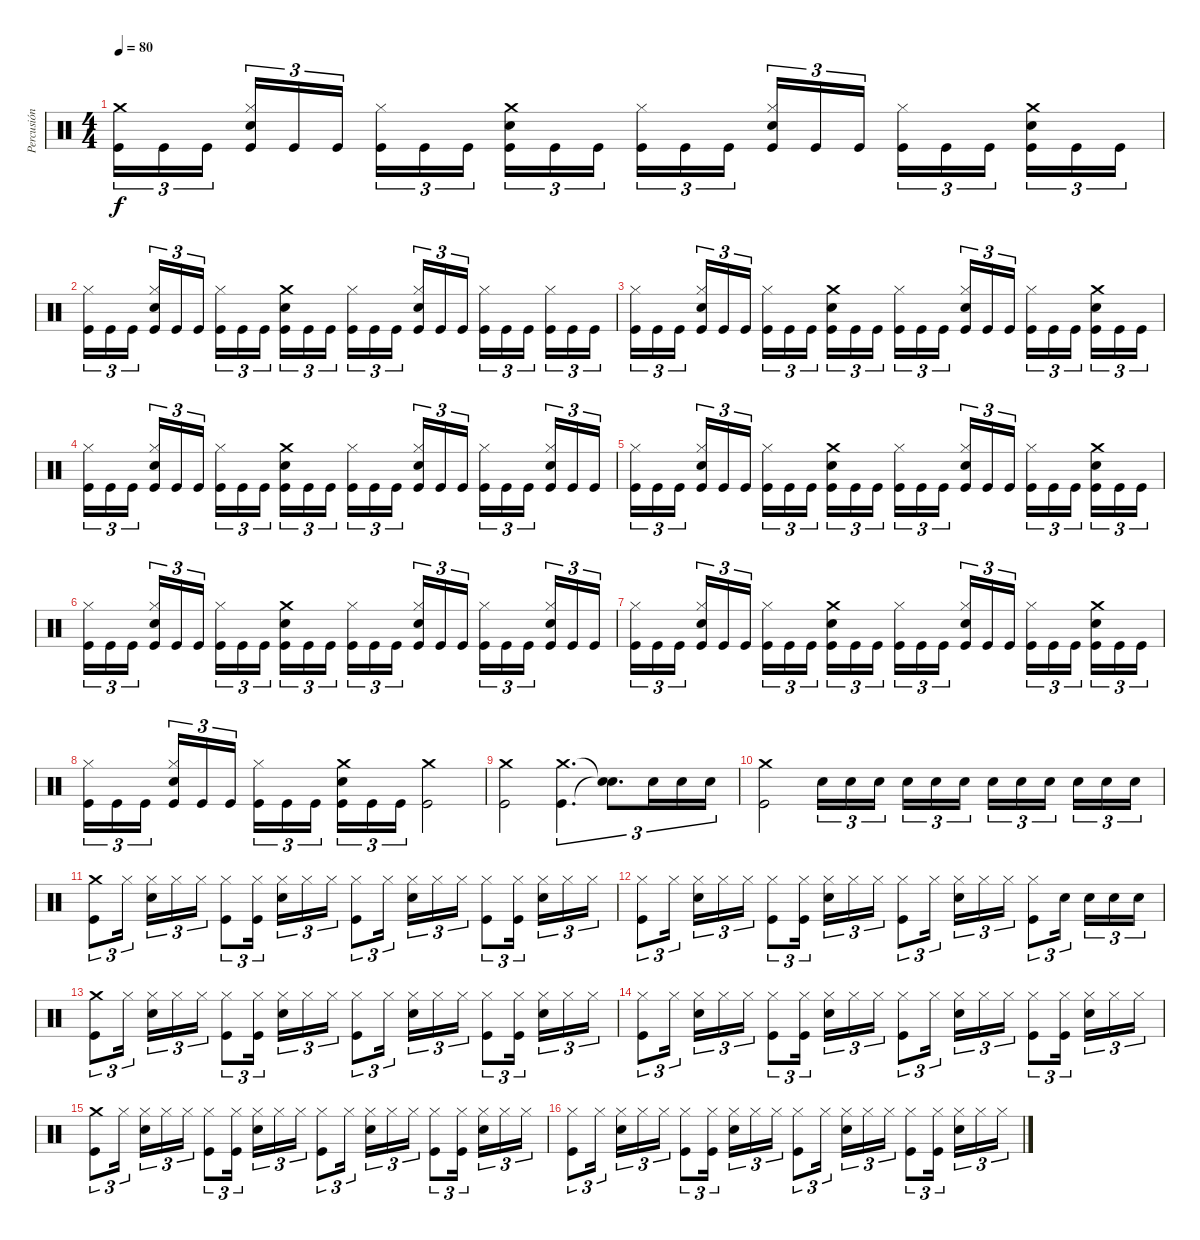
\track ("Percusión con doble bombo" "Percusión ") {mute instrument percussion}
\staff {score}
\articulation defaults
\ts (4 4)
\tempo 80
\clef neutral
\ks c
("Crash medium (hit)" "Kick (hit)").16{tu (3 2) dy f} "Kick (hit)".16{tu (3 2)} "Kick (hit)".16{tu (3 2) beam splitsecondary} ("Hi-Hat (closed)" "Snare (hit) 2" "Kick (hit)").16{tu (3 2)} "Kick (hit)".16{tu (3 2)} "Kick (hit)".16{tu (3 2)} ("Hi-Hat (closed)" "Kick (hit)").16{tu (3 2)} "Kick (hit)".16{tu (3 2)} "Kick (hit)".16{tu (3 2) beam splitsecondary} ("Crash medium (hit)" "Snare (hit) 2" "Kick (hit)").16{tu (3 2)} "Kick (hit)".16{tu (3 2)} "Kick (hit)".16{tu (3 2)} ("Hi-Hat (closed)" "Kick (hit)").16{tu (3 2)} "Kick (hit)".16{tu (3 2)} "Kick (hit)".16{tu (3 2) beam splitsecondary} ("Hi-Hat (closed)" "Snare (hit) 2" "Kick (hit)").16{tu (3 2)} "Kick (hit)".16{tu (3 2)} "Kick (hit)".16{tu (3 2)} ("Hi-Hat (closed)" "Kick (hit)").16{tu (3 2)} "Kick (hit)".16{tu (3 2)} "Kick (hit)".16{tu (3 2) beam splitsecondary} ("Crash medium (hit)" "Snare (hit) 2" "Kick (hit)").16{tu (3 2)} "Kick (hit)".16{tu (3 2)} "Kick (hit)".16{tu (3 2)} |
("Hi-Hat (closed)" "Kick (hit)").16{tu (3 2)} "Kick (hit)".16{tu (3 2)} "Kick (hit)".16{tu (3 2) beam splitsecondary} ("Hi-Hat (closed)" "Snare (hit) 2" "Kick (hit)").16{tu (3 2)} "Kick (hit)".16{tu (3 2)} "Kick (hit)".16{tu (3 2)} ("Hi-Hat (closed)" "Kick (hit)").16{tu (3 2)} "Kick (hit)".16{tu (3 2)} "Kick (hit)".16{tu (3 2) beam splitsecondary} ("Crash medium (hit)" "Snare (hit) 2" "Kick (hit)").16{tu (3 2)} "Kick (hit)".16{tu (3 2)} "Kick (hit)".16{tu (3 2)} ("Hi-Hat (closed)" "Kick (hit)").16{tu (3 2)} "Kick (hit)".16{tu (3 2)} "Kick (hit)".16{tu (3 2) beam splitsecondary} ("Hi-Hat (closed)" "Snare (hit) 2" "Kick (hit)").16{tu (3 2)} "Kick (hit)".16{tu (3 2)} "Kick (hit)".16{tu (3 2)} ("Hi-Hat (closed)" "Kick (hit)").16{tu (3 2)} "Kick (hit)".16{tu (3 2)} "Kick (hit)".16{tu (3 2) beam splitsecondary} ("Hi-Hat (closed)" "Kick (hit)").16{tu (3 2)} "Kick (hit)".16{tu (3 2)} "Kick (hit)".16{tu (3 2)} |
("Hi-Hat (closed)" "Kick (hit)").16{tu (3 2)} "Kick (hit)".16{tu (3 2)} "Kick (hit)".16{tu (3 2) beam splitsecondary} ("Hi-Hat (closed)" "Snare (hit) 2" "Kick (hit)").16{tu (3 2)} "Kick (hit)".16{tu (3 2)} "Kick (hit)".16{tu (3 2)} ("Hi-Hat (closed)" "Kick (hit)").16{tu (3 2)} "Kick (hit)".16{tu (3 2)} "Kick (hit)".16{tu (3 2) beam splitsecondary} ("Crash medium (hit)" "Snare (hit) 2" "Kick (hit)").16{tu (3 2)} "Kick (hit)".16{tu (3 2)} "Kick (hit)".16{tu (3 2)} ("Hi-Hat (closed)" "Kick (hit)").16{tu (3 2)} "Kick (hit)".16{tu (3 2)} "Kick (hit)".16{tu (3 2) beam splitsecondary} ("Hi-Hat (closed)" "Snare (hit) 2" "Kick (hit)").16{tu (3 2)} "Kick (hit)".16{tu (3 2)} "Kick (hit)".16{tu (3 2)} ("Hi-Hat (closed)" "Kick (hit)").16{tu (3 2)} "Kick (hit)".16{tu (3 2)} "Kick (hit)".16{tu (3 2) beam splitsecondary} ("Crash medium (hit)" "Snare (hit) 2" "Kick (hit)").16{tu (3 2)} "Kick (hit)".16{tu (3 2)} "Kick (hit)".16{tu (3 2)} |
("Hi-Hat (closed)" "Kick (hit)").16{tu (3 2)} "Kick (hit)".16{tu (3 2)} "Kick (hit)".16{tu (3 2) beam splitsecondary} ("Hi-Hat (closed)" "Snare (hit) 2" "Kick (hit)").16{tu (3 2)} "Kick (hit)".16{tu (3 2)} "Kick (hit)".16{tu (3 2)} ("Hi-Hat (closed)" "Kick (hit)").16{tu (3 2)} "Kick (hit)".16{tu (3 2)} "Kick (hit)".16{tu (3 2) beam splitsecondary} ("Crash medium (hit)" "Snare (hit) 2" "Kick (hit)").16{tu (3 2)} "Kick (hit)".16{tu (3 2)} "Kick (hit)".16{tu (3 2)} ("Hi-Hat (closed)" "Kick (hit)").16{tu (3 2)} "Kick (hit)".16{tu (3 2)} "Kick (hit)".16{tu (3 2) beam splitsecondary} ("Hi-Hat (closed)" "Snare (hit) 2" "Kick (hit)").16{tu (3 2)} "Kick (hit)".16{tu (3 2)} "Kick (hit)".16{tu (3 2)} ("Hi-Hat (closed)" "Kick (hit)").16{tu (3 2)} "Kick (hit)".16{tu (3 2)} "Kick (hit)".16{tu (3 2) beam splitsecondary} ("Hi-Hat (closed)" "Snare (hit) 2" "Kick (hit)").16{tu (3 2)} "Kick (hit)".16{tu (3 2)} "Kick (hit)".16{tu (3 2)} |
("Hi-Hat (closed)" "Kick (hit)").16{tu (3 2)} "Kick (hit)".16{tu (3 2)} "Kick (hit)".16{tu (3 2) beam splitsecondary} ("Hi-Hat (closed)" "Snare (hit) 2" "Kick (hit)").16{tu (3 2)} "Kick (hit)".16{tu (3 2)} "Kick (hit)".16{tu (3 2)} ("Hi-Hat (closed)" "Kick (hit)").16{tu (3 2)} "Kick (hit)".16{tu (3 2)} "Kick (hit)".16{tu (3 2) beam splitsecondary} ("Crash medium (hit)" "Snare (hit) 2" "Kick (hit)").16{tu (3 2)} "Kick (hit)".16{tu (3 2)} "Kick (hit)".16{tu (3 2)} ("Hi-Hat (closed)" "Kick (hit)").16{tu (3 2)} "Kick (hit)".16{tu (3 2)} "Kick (hit)".16{tu (3 2) beam splitsecondary} ("Hi-Hat (closed)" "Snare (hit) 2" "Kick (hit)").16{tu (3 2)} "Kick (hit)".16{tu (3 2)} "Kick (hit)".16{tu (3 2)} ("Hi-Hat (closed)" "Kick (hit)").16{tu (3 2)} "Kick (hit)".16{tu (3 2)} "Kick (hit)".16{tu (3 2) beam splitsecondary} ("Crash medium (hit)" "Snare (hit) 2" "Kick (hit)").16{tu (3 2)} "Kick (hit)".16{tu (3 2)} "Kick (hit)".16{tu (3 2)} |
("Hi-Hat (closed)" "Kick (hit)").16{tu (3 2)} "Kick (hit)".16{tu (3 2)} "Kick (hit)".16{tu (3 2) beam splitsecondary} ("Hi-Hat (closed)" "Snare (hit) 2" "Kick (hit)").16{tu (3 2)} "Kick (hit)".16{tu (3 2)} "Kick (hit)".16{tu (3 2)} ("Hi-Hat (closed)" "Kick (hit)").16{tu (3 2)} "Kick (hit)".16{tu (3 2)} "Kick (hit)".16{tu (3 2) beam splitsecondary} ("Crash medium (hit)" "Snare (hit) 2" "Kick (hit)").16{tu (3 2)} "Kick (hit)".16{tu (3 2)} "Kick (hit)".16{tu (3 2)} ("Hi-Hat (closed)" "Kick (hit)").16{tu (3 2)} "Kick (hit)".16{tu (3 2)} "Kick (hit)".16{tu (3 2) beam splitsecondary} ("Hi-Hat (closed)" "Snare (hit) 2" "Kick (hit)").16{tu (3 2)} "Kick (hit)".16{tu (3 2)} "Kick (hit)".16{tu (3 2)} ("Hi-Hat (closed)" "Kick (hit)").16{tu (3 2)} "Kick (hit)".16{tu (3 2)} "Kick (hit)".16{tu (3 2) beam splitsecondary} ("Hi-Hat (closed)" "Snare (hit) 2" "Kick (hit)").16{tu (3 2)} "Kick (hit)".16{tu (3 2)} "Kick (hit)".16{tu (3 2)} |
("Hi-Hat (closed)" "Kick (hit)").16{tu (3 2)} "Kick (hit)".16{tu (3 2)} "Kick (hit)".16{tu (3 2) beam splitsecondary} ("Hi-Hat (closed)" "Snare (hit) 2" "Kick (hit)").16{tu (3 2)} "Kick (hit)".16{tu (3 2)} "Kick (hit)".16{tu (3 2)} ("Hi-Hat (closed)" "Kick (hit)").16{tu (3 2)} "Kick (hit)".16{tu (3 2)} "Kick (hit)".16{tu (3 2) beam splitsecondary} ("Crash medium (hit)" "Snare (hit) 2" "Kick (hit)").16{tu (3 2)} "Kick (hit)".16{tu (3 2)} "Kick (hit)".16{tu (3 2)} ("Hi-Hat (closed)" "Kick (hit)").16{tu (3 2)} "Kick (hit)".16{tu (3 2)} "Kick (hit)".16{tu (3 2) beam splitsecondary} ("Hi-Hat (closed)" "Snare (hit) 2" "Kick (hit)").16{tu (3 2)} "Kick (hit)".16{tu (3 2)} "Kick (hit)".16{tu (3 2)} ("Hi-Hat (closed)" "Kick (hit)").16{tu (3 2)} "Kick (hit)".16{tu (3 2)} "Kick (hit)".16{tu (3 2) beam splitsecondary} ("Crash medium (hit)" "Snare (hit) 2" "Kick (hit)").16{tu (3 2)} "Kick (hit)".16{tu (3 2)} "Kick (hit)".16{tu (3 2)} |
("Hi-Hat (closed)" "Kick (hit)").16{tu (3 2)} "Kick (hit)".16{tu (3 2)} "Kick (hit)".16{tu (3 2) beam splitsecondary} ("Hi-Hat (closed)" "Snare (hit) 2" "Kick (hit)").16{tu (3 2)} "Kick (hit)".16{tu (3 2)} "Kick (hit)".16{tu (3 2)} ("Hi-Hat (closed)" "Kick (hit)").16{tu (3 2)} "Kick (hit)".16{tu (3 2)} "Kick (hit)".16{tu (3 2) beam splitsecondary} ("Crash medium (hit)" "Snare (hit) 2" "Kick (hit)").16{tu (3 2)} "Kick (hit)".16{tu (3 2)} "Kick (hit)".16{tu (3 2)} ("Crash medium (hit)" "Kick (hit)").2 |
("Crash medium (hit)" "Kick (hit)").2 ("Crash medium (hit)" "Kick (hit)").4{d tu (3 2)} ("Snare (hit)"{t} "Snare (hit)"{t}).8{d tu (3 2)} "Snare (hit) 2".16{tu (3 2)} "Snare (hit) 2".16{tu (3 2)} "Snare (hit) 2".16{tu (3 2)} |
("Crash medium (hit)" "Kick (hit)").2 "Snare (hit) 2".16{tu (3 2)} "Snare (hit) 2".16{tu (3 2)} "Snare (hit) 2".16{tu (3 2) beam splitsecondary} "Snare (hit) 2".16{tu (3 2)} "Snare (hit) 2".16{tu (3 2)} "Snare (hit) 2".16{tu (3 2)} "Snare (hit) 2".16{tu (3 2)} "Snare (hit) 2".16{tu (3 2)} "Snare (hit) 2".16{tu (3 2) beam splitsecondary} "Snare (hit) 2".16{tu (3 2)} "Snare (hit) 2".16{tu (3 2)} "Snare (hit) 2".16{tu (3 2)} |
("Crash medium (hit)" "Kick (hit)").8{tu (3 2)} "Hi-Hat (closed)".16{tu (3 2) beam splitsecondary} ("Hi-Hat (closed)" "Snare (hit) 2").16{tu (3 2)} "Hi-Hat (closed)".16{tu (3 2)} "Hi-Hat (closed)".16{tu (3 2)} ("Hi-Hat (closed)" "Kick (hit)").8{tu (3 2)} ("Hi-Hat (closed)" "Kick (hit)").16{tu (3 2) beam splitsecondary} ("Hi-Hat (closed)" "Snare (hit) 2").16{tu (3 2)} "Hi-Hat (closed)".16{tu (3 2)} "Hi-Hat (closed)".16{tu (3 2)} ("Hi-Hat (closed)" "Kick (hit)").8{tu (3 2)} "Hi-Hat (closed)".16{tu (3 2) beam splitsecondary} ("Hi-Hat (closed)" "Snare (hit) 2").16{tu (3 2)} "Hi-Hat (closed)".16{tu (3 2)} "Hi-Hat (closed)".16{tu (3 2)} ("Hi-Hat (closed)" "Kick (hit)").8{tu (3 2)} ("Hi-Hat (closed)" "Kick (hit)").16{tu (3 2) beam splitsecondary} ("Hi-Hat (closed)" "Snare (hit) 2").16{tu (3 2)} "Hi-Hat (closed)".16{tu (3 2)} "Hi-Hat (closed)".16{tu (3 2)} |
("Hi-Hat (closed)" "Kick (hit)").8{tu (3 2)} "Hi-Hat (closed)".16{tu (3 2) beam splitsecondary} ("Hi-Hat (closed)" "Snare (hit) 2").16{tu (3 2)} "Hi-Hat (closed)".16{tu (3 2)} "Hi-Hat (closed)".16{tu (3 2)} ("Hi-Hat (closed)" "Kick (hit)").8{tu (3 2)} ("Hi-Hat (closed)" "Kick (hit)").16{tu (3 2) beam splitsecondary} ("Hi-Hat (closed)" "Snare (hit) 2").16{tu (3 2)} "Hi-Hat (closed)".16{tu (3 2)} "Hi-Hat (closed)".16{tu (3 2)} ("Hi-Hat (closed)" "Kick (hit)").8{tu (3 2)} "Hi-Hat (closed)".16{tu (3 2) beam splitsecondary} ("Hi-Hat (closed)" "Snare (hit) 2").16{tu (3 2)} "Hi-Hat (closed)".16{tu (3 2)} "Hi-Hat (closed)".16{tu (3 2)} ("Hi-Hat (closed)" "Kick (hit)").8{tu (3 2)} "Snare (hit) 2".16{tu (3 2) beam splitsecondary} "Snare (hit) 2".16{tu (3 2)} "Snare (hit) 2".16{tu (3 2)} "Snare (hit) 2".16{tu (3 2)} |
("Crash medium (hit)" "Kick (hit)").8{tu (3 2)} "Hi-Hat (closed)".16{tu (3 2) beam splitsecondary} ("Hi-Hat (closed)" "Snare (hit) 2").16{tu (3 2)} "Hi-Hat (closed)".16{tu (3 2)} "Hi-Hat (closed)".16{tu (3 2)} ("Hi-Hat (closed)" "Kick (hit)").8{tu (3 2)} ("Hi-Hat (closed)" "Kick (hit)").16{tu (3 2) beam splitsecondary} ("Hi-Hat (closed)" "Snare (hit) 2").16{tu (3 2)} "Hi-Hat (closed)".16{tu (3 2)} "Hi-Hat (closed)".16{tu (3 2)} ("Hi-Hat (closed)" "Kick (hit)").8{tu (3 2)} "Hi-Hat (closed)".16{tu (3 2) beam splitsecondary} ("Hi-Hat (closed)" "Snare (hit) 2").16{tu (3 2)} "Hi-Hat (closed)".16{tu (3 2)} "Hi-Hat (closed)".16{tu (3 2)} ("Hi-Hat (closed)" "Kick (hit)").8{tu (3 2)} ("Hi-Hat (closed)" "Kick (hit)").16{tu (3 2) beam splitsecondary} ("Hi-Hat (closed)" "Snare (hit) 2").16{tu (3 2)} "Hi-Hat (closed)".16{tu (3 2)} "Hi-Hat (closed)".16{tu (3 2)} |
("Hi-Hat (closed)" "Kick (hit)").8{tu (3 2)} "Hi-Hat (closed)".16{tu (3 2) beam splitsecondary} ("Hi-Hat (closed)" "Snare (hit) 2").16{tu (3 2)} "Hi-Hat (closed)".16{tu (3 2)} "Hi-Hat (closed)".16{tu (3 2)} ("Hi-Hat (closed)" "Kick (hit)").8{tu (3 2)} ("Hi-Hat (closed)" "Kick (hit)").16{tu (3 2) beam splitsecondary} ("Hi-Hat (closed)" "Snare (hit) 2").16{tu (3 2)} "Hi-Hat (closed)".16{tu (3 2)} "Hi-Hat (closed)".16{tu (3 2)} ("Hi-Hat (closed)" "Kick (hit)").8{tu (3 2)} "Hi-Hat (closed)".16{tu (3 2) beam splitsecondary} ("Hi-Hat (closed)" "Snare (hit) 2").16{tu (3 2)} "Hi-Hat (closed)".16{tu (3 2)} "Hi-Hat (closed)".16{tu (3 2)} ("Hi-Hat (closed)" "Kick (hit)").8{tu (3 2)} ("Hi-Hat (closed)" "Kick (hit)").16{tu (3 2) beam splitsecondary} ("Hi-Hat (closed)" "Snare (hit) 2").16{tu (3 2)} "Hi-Hat (closed)".16{tu (3 2)} "Hi-Hat (closed)".16{tu (3 2)} |
("Crash medium (hit)" "Kick (hit)").8{tu (3 2)} "Hi-Hat (closed)".16{tu (3 2) beam splitsecondary} ("Hi-Hat (closed)" "Snare (hit) 2").16{tu (3 2)} "Hi-Hat (closed)".16{tu (3 2)} "Hi-Hat (closed)".16{tu (3 2)} ("Hi-Hat (closed)" "Kick (hit)").8{tu (3 2)} ("Hi-Hat (closed)" "Kick (hit)").16{tu (3 2) beam splitsecondary} ("Hi-Hat (closed)" "Snare (hit) 2").16{tu (3 2)} "Hi-Hat (closed)".16{tu (3 2)} "Hi-Hat (closed)".16{tu (3 2)} ("Hi-Hat (closed)" "Kick (hit)").8{tu (3 2)} "Hi-Hat (closed)".16{tu (3 2) beam splitsecondary} ("Hi-Hat (closed)" "Snare (hit) 2").16{tu (3 2)} "Hi-Hat (closed)".16{tu (3 2)} "Hi-Hat (closed)".16{tu (3 2)} ("Hi-Hat (closed)" "Kick (hit)").8{tu (3 2)} ("Hi-Hat (closed)" "Kick (hit)").16{tu (3 2) beam splitsecondary} ("Hi-Hat (closed)" "Snare (hit) 2").16{tu (3 2)} "Hi-Hat (closed)".16{tu (3 2)} "Hi-Hat (closed)".16{tu (3 2)} |
("Hi-Hat (closed)" "Kick (hit)").8{tu (3 2)} "Hi-Hat (closed)".16{tu (3 2) beam splitsecondary} ("Hi-Hat (closed)" "Snare (hit) 2").16{tu (3 2)} "Hi-Hat (closed)".16{tu (3 2)} "Hi-Hat (closed)".16{tu (3 2)} ("Hi-Hat (closed)" "Kick (hit)").8{tu (3 2)} ("Hi-Hat (closed)" "Kick (hit)").16{tu (3 2) beam splitsecondary} ("Hi-Hat (closed)" "Snare (hit) 2").16{tu (3 2)} "Hi-Hat (closed)".16{tu (3 2)} "Hi-Hat (closed)".16{tu (3 2)} ("Hi-Hat (closed)" "Kick (hit)").8{tu (3 2)} "Hi-Hat (closed)".16{tu (3 2) beam splitsecondary} ("Hi-Hat (closed)" "Snare (hit) 2").16{tu (3 2)} "Hi-Hat (closed)".16{tu (3 2)} "Hi-Hat (closed)".16{tu (3 2)} ("Hi-Hat (closed)" "Kick (hit)").8{tu (3 2)} ("Hi-Hat (closed)" "Kick (hit)").16{tu (3 2) beam splitsecondary} ("Hi-Hat (closed)" "Snare (hit) 2").16{tu (3 2)} "Hi-Hat (closed)".16{tu (3 2)} "Hi-Hat (closed)".16{tu (3 2)}
